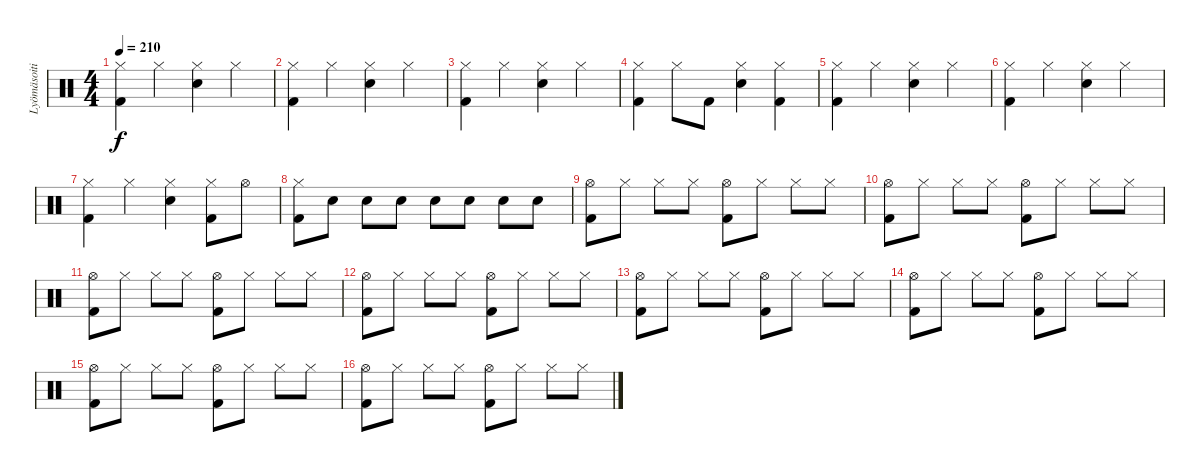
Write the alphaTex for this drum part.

\track ("Lyömäsoitin" "Lyömäsoiti") {instrument percussion}
\staff {score}
\articulation defaults
\ts (4 4)
\tempo 210
\clef neutral
\ks c
("Hi-Hat (closed)" "Kick (hit) 2").4{dy f} "Hi-Hat (closed)".4 ("Hi-Hat (closed)" "Electric Snare (hit)").4 "Hi-Hat (closed)".4 |
("Hi-Hat (closed)" "Kick (hit) 2").4 "Hi-Hat (closed)".4 ("Hi-Hat (closed)" "Electric Snare (hit)").4 "Hi-Hat (closed)".4 |
("Hi-Hat (closed)" "Kick (hit) 2").4 "Hi-Hat (closed)".4 ("Hi-Hat (closed)" "Electric Snare (hit)").4 "Hi-Hat (closed)".4 |
("Hi-Hat (closed)" "Kick (hit) 2").4 "Hi-Hat (closed)".8 "Kick (hit) 2".8 ("Hi-Hat (closed)" "Electric Snare (hit)").4 ("Hi-Hat (closed)" "Kick (hit) 2").4 |
("Hi-Hat (closed)" "Kick (hit) 2").4 "Hi-Hat (closed)".4 ("Hi-Hat (closed)" "Electric Snare (hit)").4 "Hi-Hat (closed)".4 |
("Hi-Hat (closed)" "Kick (hit) 2").4 "Hi-Hat (closed)".4 ("Hi-Hat (closed)" "Electric Snare (hit)").4 "Hi-Hat (closed)".4 |
("Hi-Hat (closed)" "Kick (hit) 2").4 "Hi-Hat (closed)".4 ("Hi-Hat (closed)" "Electric Snare (hit)").4 ("Hi-Hat (closed)" "Kick (hit) 2").8 "Hi-Hat (open)".8 |
("Hi-Hat (closed)" "Kick (hit) 2").8 "Electric Snare (hit)".8 "Electric Snare (hit)".8 "Electric Snare (hit)".8 "Electric Snare (hit)".8 "Electric Snare (hit)".8 "Electric Snare (hit)".8 "Electric Snare (hit)".8 |
("Hi-Hat (open)" "Kick (hit) 2").8 "Hi-Hat (closed)".8 "Hi-Hat (closed)".8 "Hi-Hat (closed)".8 ("Hi-Hat (open)" "Kick (hit) 2").8 "Hi-Hat (closed)".8 "Hi-Hat (closed)".8 "Hi-Hat (closed)".8 |
("Hi-Hat (open)" "Kick (hit) 2").8 "Hi-Hat (closed)".8 "Hi-Hat (closed)".8 "Hi-Hat (closed)".8 ("Hi-Hat (open)" "Kick (hit) 2").8 "Hi-Hat (closed)".8 "Hi-Hat (closed)".8 "Hi-Hat (closed)".8 |
("Hi-Hat (open)" "Kick (hit) 2").8 "Hi-Hat (closed)".8 "Hi-Hat (closed)".8 "Hi-Hat (closed)".8 ("Hi-Hat (open)" "Kick (hit) 2").8 "Hi-Hat (closed)".8 "Hi-Hat (closed)".8 "Hi-Hat (closed)".8 |
("Hi-Hat (open)" "Kick (hit) 2").8 "Hi-Hat (closed)".8 "Hi-Hat (closed)".8 "Hi-Hat (closed)".8 ("Hi-Hat (open)" "Kick (hit) 2").8 "Hi-Hat (closed)".8 "Hi-Hat (closed)".8 "Hi-Hat (closed)".8 |
("Hi-Hat (open)" "Kick (hit) 2").8 "Hi-Hat (closed)".8 "Hi-Hat (closed)".8 "Hi-Hat (closed)".8 ("Hi-Hat (open)" "Kick (hit) 2").8 "Hi-Hat (closed)".8 "Hi-Hat (closed)".8 "Hi-Hat (closed)".8 |
("Hi-Hat (open)" "Kick (hit) 2").8 "Hi-Hat (closed)".8 "Hi-Hat (closed)".8 "Hi-Hat (closed)".8 ("Hi-Hat (open)" "Kick (hit) 2").8 "Hi-Hat (closed)".8 "Hi-Hat (closed)".8 "Hi-Hat (closed)".8 |
("Hi-Hat (open)" "Kick (hit) 2").8 "Hi-Hat (closed)".8 "Hi-Hat (closed)".8 "Hi-Hat (closed)".8 ("Hi-Hat (open)" "Kick (hit) 2").8 "Hi-Hat (closed)".8 "Hi-Hat (closed)".8 "Hi-Hat (closed)".8 |
("Hi-Hat (open)" "Kick (hit) 2").8 "Hi-Hat (closed)".8 "Hi-Hat (closed)".8 "Hi-Hat (closed)".8 ("Hi-Hat (open)" "Kick (hit) 2").8 "Hi-Hat (closed)".8 "Hi-Hat (closed)".8 "Hi-Hat (closed)".8
